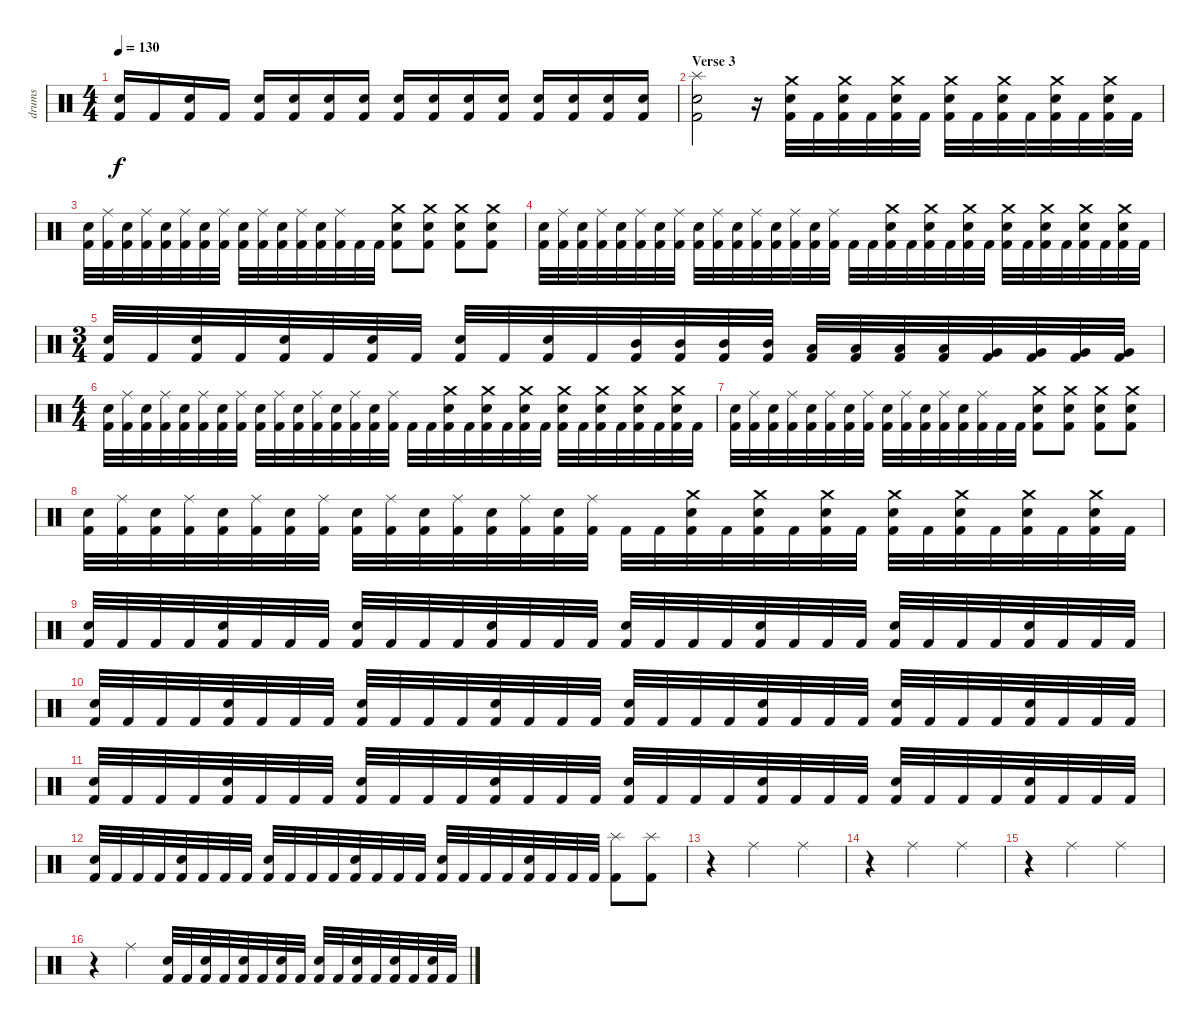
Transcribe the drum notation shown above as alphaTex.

\track ("drums" "drums") {instrument percussion}
\staff {score}
\articulation defaults
\ts (4 4)
\tempo 130
\clef neutral
\ks c
("Electric Snare (hit)" "Kick (hit) 2").16{dy f} "Kick (hit) 2".16 ("Electric Snare (hit)" "Kick (hit) 2").16 "Kick (hit) 2".16 ("Electric Snare (hit)" "Kick (hit) 2").16 ("Electric Snare (hit)" "Kick (hit) 2").16 ("Electric Snare (hit)" "Kick (hit) 2").16 ("Electric Snare (hit)" "Kick (hit) 2").16 ("Electric Snare (hit)" "Kick (hit) 2").16 ("Electric Snare (hit)" "Kick (hit) 2").16 ("Electric Snare (hit)" "Kick (hit) 2").16 ("Electric Snare (hit)" "Kick (hit) 2").16 ("Electric Snare (hit)" "Kick (hit) 2").16 ("Electric Snare (hit)" "Kick (hit) 2").16 ("Electric Snare (hit)" "Kick (hit) 2").16 ("Electric Snare (hit)" "Kick (hit) 2").16 |
\section ("" "Verse 3")
("Splash (hit)" "Electric Snare (hit)" "Kick (hit) 2").2 r.16 ("Crash medium (hit)" "Electric Snare (hit)" "Kick (hit) 2").32 "Kick (hit) 2".32 ("Crash medium (hit)" "Electric Snare (hit)" "Kick (hit) 2").32 "Kick (hit) 2".32 ("Crash medium (hit)" "Electric Snare (hit)" "Kick (hit) 2").32 "Kick (hit) 2".32 ("Crash medium (hit)" "Electric Snare (hit)" "Kick (hit) 2").32 "Kick (hit) 2".32 ("Crash medium (hit)" "Electric Snare (hit)" "Kick (hit) 2").32 "Kick (hit) 2".32 ("Crash medium (hit)" "Electric Snare (hit)" "Kick (hit) 2").32 "Kick (hit) 2".32 ("Crash medium (hit)" "Electric Snare (hit)" "Kick (hit) 2").32 "Kick (hit) 2".32 |
("Electric Snare (hit)" "Kick (hit) 2").32 ("Ride (middle)" "Kick (hit) 2").32 ("Electric Snare (hit)" "Kick (hit) 2").32 ("Ride (middle)" "Kick (hit) 2").32 ("Electric Snare (hit)" "Kick (hit) 2").32 ("Ride (middle)" "Kick (hit) 2").32 ("Electric Snare (hit)" "Kick (hit) 2").32 ("Ride (middle)" "Kick (hit) 2").32 ("Electric Snare (hit)" "Kick (hit) 2").32 ("Ride (middle)" "Kick (hit) 2").32 ("Electric Snare (hit)" "Kick (hit) 2").32 ("Ride (middle)" "Kick (hit) 2").32 ("Electric Snare (hit)" "Kick (hit) 2").32 ("Ride (middle)" "Kick (hit) 2").32 "Kick (hit) 2".32 "Kick (hit) 2".32 ("Crash medium (hit)" "Electric Snare (hit)" "Kick (hit) 2").8 ("Crash medium (hit)" "Electric Snare (hit)" "Kick (hit) 2").8 ("Crash medium (hit)" "Electric Snare (hit)" "Kick (hit) 2").8 ("Crash medium (hit)" "Electric Snare (hit)" "Kick (hit) 2").8 |
("Electric Snare (hit)" "Kick (hit) 2").32 ("Ride (middle)" "Kick (hit) 2").32 ("Electric Snare (hit)" "Kick (hit) 2").32 ("Ride (middle)" "Kick (hit) 2").32 ("Electric Snare (hit)" "Kick (hit) 2").32 ("Ride (middle)" "Kick (hit) 2").32 ("Electric Snare (hit)" "Kick (hit) 2").32 ("Ride (middle)" "Kick (hit) 2").32 ("Electric Snare (hit)" "Kick (hit) 2").32 ("Ride (middle)" "Kick (hit) 2").32 ("Electric Snare (hit)" "Kick (hit) 2").32 ("Ride (middle)" "Kick (hit) 2").32 ("Electric Snare (hit)" "Kick (hit) 2").32 ("Ride (middle)" "Kick (hit) 2").32 ("Electric Snare (hit)" "Kick (hit) 2").32 ("Ride (middle)" "Kick (hit) 2").32 "Kick (hit) 2".32 "Kick (hit) 2".32 ("Crash medium (hit)" "Electric Snare (hit)" "Kick (hit) 2").32 "Kick (hit) 2".32 ("Crash medium (hit)" "Electric Snare (hit)" "Kick (hit) 2").32 "Kick (hit) 2".32 ("Crash medium (hit)" "Electric Snare (hit)" "Kick (hit) 2").32 "Kick (hit) 2".32 ("Crash medium (hit)" "Electric Snare (hit)" "Kick (hit) 2").32 "Kick (hit) 2".32 ("Crash medium (hit)" "Electric Snare (hit)" "Kick (hit) 2").32 "Kick (hit) 2".32 ("Crash medium (hit)" "Electric Snare (hit)" "Kick (hit) 2").32 "Kick (hit) 2".32 ("Crash medium (hit)" "Electric Snare (hit)" "Kick (hit) 2").32 "Kick (hit) 2".32 |
\ts (3 4)
("Electric Snare (hit)" "Kick (hit) 2").32 "Kick (hit) 2".32 ("Electric Snare (hit)" "Kick (hit) 2").32 "Kick (hit) 2".32 ("Electric Snare (hit)" "Kick (hit) 2").32 "Kick (hit) 2".32 ("Electric Snare (hit)" "Kick (hit) 2").32 "Kick (hit) 2".32 ("Electric Snare (hit)" "Kick (hit) 2").32 "Kick (hit) 2".32 ("Electric Snare (hit)" "Kick (hit) 2").32 "Kick (hit) 2".32 ("Mid Tom (hit)" "Kick (hit) 2").32 ("Mid Tom (hit)" "Kick (hit) 2").32 ("Mid Tom (hit)" "Kick (hit) 2").32 ("Mid Tom (hit)" "Kick (hit) 2").32 ("Low Tom (hit)" "Kick (hit) 2").32 ("Low Tom (hit)" "Kick (hit) 2").32 ("Low Tom (hit)" "Kick (hit) 2").32 ("Low Tom (hit)" "Kick (hit) 2").32 ("Very Low Tom (hit)" "Kick (hit) 2").32 ("Very Low Tom (hit)" "Kick (hit) 2").32 ("Very Low Tom (hit)" "Kick (hit) 2").32 ("Very Low Tom (hit)" "Kick (hit) 2").32 |
\ts (4 4)
("Electric Snare (hit)" "Kick (hit) 2").32 ("Ride (middle)" "Kick (hit) 2").32 ("Electric Snare (hit)" "Kick (hit) 2").32 ("Ride (middle)" "Kick (hit) 2").32 ("Electric Snare (hit)" "Kick (hit) 2").32 ("Ride (middle)" "Kick (hit) 2").32 ("Electric Snare (hit)" "Kick (hit) 2").32 ("Ride (middle)" "Kick (hit) 2").32 ("Electric Snare (hit)" "Kick (hit) 2").32 ("Ride (middle)" "Kick (hit) 2").32 ("Electric Snare (hit)" "Kick (hit) 2").32 ("Ride (middle)" "Kick (hit) 2").32 ("Electric Snare (hit)" "Kick (hit) 2").32 ("Ride (middle)" "Kick (hit) 2").32 ("Electric Snare (hit)" "Kick (hit) 2").32 ("Ride (middle)" "Kick (hit) 2").32 "Kick (hit) 2".32 "Kick (hit) 2".32 ("Crash medium (hit)" "Electric Snare (hit)" "Kick (hit) 2").32 "Kick (hit) 2".32 ("Crash medium (hit)" "Electric Snare (hit)" "Kick (hit) 2").32 "Kick (hit) 2".32 ("Crash medium (hit)" "Electric Snare (hit)" "Kick (hit) 2").32 "Kick (hit) 2".32 ("Crash medium (hit)" "Electric Snare (hit)" "Kick (hit) 2").32 "Kick (hit) 2".32 ("Crash medium (hit)" "Electric Snare (hit)" "Kick (hit) 2").32 "Kick (hit) 2".32 ("Crash medium (hit)" "Electric Snare (hit)" "Kick (hit) 2").32 "Kick (hit) 2".32 ("Crash medium (hit)" "Electric Snare (hit)" "Kick (hit) 2").32 "Kick (hit) 2".32 |
("Electric Snare (hit)" "Kick (hit) 2").32 ("Ride (middle)" "Kick (hit) 2").32 ("Electric Snare (hit)" "Kick (hit) 2").32 ("Ride (middle)" "Kick (hit) 2").32 ("Electric Snare (hit)" "Kick (hit) 2").32 ("Ride (middle)" "Kick (hit) 2").32 ("Electric Snare (hit)" "Kick (hit) 2").32 ("Ride (middle)" "Kick (hit) 2").32 ("Electric Snare (hit)" "Kick (hit) 2").32 ("Ride (middle)" "Kick (hit) 2").32 ("Electric Snare (hit)" "Kick (hit) 2").32 ("Ride (middle)" "Kick (hit) 2").32 ("Electric Snare (hit)" "Kick (hit) 2").32 ("Ride (middle)" "Kick (hit) 2").32 "Kick (hit) 2".32 "Kick (hit) 2".32 ("Crash medium (hit)" "Electric Snare (hit)" "Kick (hit) 2").8 ("Crash medium (hit)" "Electric Snare (hit)" "Kick (hit) 2").8 ("Crash medium (hit)" "Electric Snare (hit)" "Kick (hit) 2").8 ("Crash medium (hit)" "Electric Snare (hit)" "Kick (hit) 2").8 |
("Electric Snare (hit)" "Kick (hit) 2").32 ("Ride (middle)" "Kick (hit) 2").32 ("Electric Snare (hit)" "Kick (hit) 2").32 ("Ride (middle)" "Kick (hit) 2").32 ("Electric Snare (hit)" "Kick (hit) 2").32 ("Ride (middle)" "Kick (hit) 2").32 ("Electric Snare (hit)" "Kick (hit) 2").32 ("Ride (middle)" "Kick (hit) 2").32 ("Electric Snare (hit)" "Kick (hit) 2").32 ("Ride (middle)" "Kick (hit) 2").32 ("Electric Snare (hit)" "Kick (hit) 2").32 ("Ride (middle)" "Kick (hit) 2").32 ("Electric Snare (hit)" "Kick (hit) 2").32 ("Ride (middle)" "Kick (hit) 2").32 ("Electric Snare (hit)" "Kick (hit) 2").32 ("Ride (middle)" "Kick (hit) 2").32 "Kick (hit) 2".32 "Kick (hit) 2".32 ("Crash medium (hit)" "Electric Snare (hit)" "Kick (hit) 2").32 "Kick (hit) 2".32 ("Crash medium (hit)" "Electric Snare (hit)" "Kick (hit) 2").32 "Kick (hit) 2".32 ("Crash medium (hit)" "Electric Snare (hit)" "Kick (hit) 2").32 "Kick (hit) 2".32 ("Crash medium (hit)" "Electric Snare (hit)" "Kick (hit) 2").32 "Kick (hit) 2".32 ("Crash medium (hit)" "Electric Snare (hit)" "Kick (hit) 2").32 "Kick (hit) 2".32 ("Crash medium (hit)" "Electric Snare (hit)" "Kick (hit) 2").32 "Kick (hit) 2".32 ("Crash medium (hit)" "Electric Snare (hit)" "Kick (hit) 2").32 "Kick (hit) 2".32 |
("Electric Snare (hit)" "Kick (hit) 2").32 "Kick (hit) 2".32 "Kick (hit) 2".32 "Kick (hit) 2".32 ("Electric Snare (hit)" "Kick (hit) 2").32 "Kick (hit) 2".32 "Kick (hit) 2".32 "Kick (hit) 2".32 ("Electric Snare (hit)" "Kick (hit) 2").32 "Kick (hit) 2".32 "Kick (hit) 2".32 "Kick (hit) 2".32 ("Electric Snare (hit)" "Kick (hit) 2").32 "Kick (hit) 2".32 "Kick (hit) 2".32 "Kick (hit) 2".32 ("Electric Snare (hit)" "Kick (hit) 2").32 "Kick (hit) 2".32 "Kick (hit) 2".32 "Kick (hit) 2".32 ("Electric Snare (hit)" "Kick (hit) 2").32 "Kick (hit) 2".32 "Kick (hit) 2".32 "Kick (hit) 2".32 ("Electric Snare (hit)" "Kick (hit) 2").32 "Kick (hit) 2".32 "Kick (hit) 2".32 "Kick (hit) 2".32 ("Electric Snare (hit)" "Kick (hit) 2").32 "Kick (hit) 2".32 "Kick (hit) 2".32 "Kick (hit) 2".32 |
("Electric Snare (hit)" "Kick (hit) 2").32 "Kick (hit) 2".32 "Kick (hit) 2".32 "Kick (hit) 2".32 ("Electric Snare (hit)" "Kick (hit) 2").32 "Kick (hit) 2".32 "Kick (hit) 2".32 "Kick (hit) 2".32 ("Electric Snare (hit)" "Kick (hit) 2").32 "Kick (hit) 2".32 "Kick (hit) 2".32 "Kick (hit) 2".32 ("Electric Snare (hit)" "Kick (hit) 2").32 "Kick (hit) 2".32 "Kick (hit) 2".32 "Kick (hit) 2".32 ("Electric Snare (hit)" "Kick (hit) 2").32 "Kick (hit) 2".32 "Kick (hit) 2".32 "Kick (hit) 2".32 ("Electric Snare (hit)" "Kick (hit) 2").32 "Kick (hit) 2".32 "Kick (hit) 2".32 "Kick (hit) 2".32 ("Electric Snare (hit)" "Kick (hit) 2").32 "Kick (hit) 2".32 "Kick (hit) 2".32 "Kick (hit) 2".32 ("Electric Snare (hit)" "Kick (hit) 2").32 "Kick (hit) 2".32 "Kick (hit) 2".32 "Kick (hit) 2".32 |
("Electric Snare (hit)" "Kick (hit) 2").32 "Kick (hit) 2".32 "Kick (hit) 2".32 "Kick (hit) 2".32 ("Electric Snare (hit)" "Kick (hit) 2").32 "Kick (hit) 2".32 "Kick (hit) 2".32 "Kick (hit) 2".32 ("Electric Snare (hit)" "Kick (hit) 2").32 "Kick (hit) 2".32 "Kick (hit) 2".32 "Kick (hit) 2".32 ("Electric Snare (hit)" "Kick (hit) 2").32 "Kick (hit) 2".32 "Kick (hit) 2".32 "Kick (hit) 2".32 ("Electric Snare (hit)" "Kick (hit) 2").32 "Kick (hit) 2".32 "Kick (hit) 2".32 "Kick (hit) 2".32 ("Electric Snare (hit)" "Kick (hit) 2").32 "Kick (hit) 2".32 "Kick (hit) 2".32 "Kick (hit) 2".32 ("Electric Snare (hit)" "Kick (hit) 2").32 "Kick (hit) 2".32 "Kick (hit) 2".32 "Kick (hit) 2".32 ("Electric Snare (hit)" "Kick (hit) 2").32 "Kick (hit) 2".32 "Kick (hit) 2".32 "Kick (hit) 2".32 |
("Electric Snare (hit)" "Kick (hit) 2").32 "Kick (hit) 2".32 "Kick (hit) 2".32 "Kick (hit) 2".32 ("Electric Snare (hit)" "Kick (hit) 2").32 "Kick (hit) 2".32 "Kick (hit) 2".32 "Kick (hit) 2".32 ("Electric Snare (hit)" "Kick (hit) 2").32 "Kick (hit) 2".32 "Kick (hit) 2".32 "Kick (hit) 2".32 ("Electric Snare (hit)" "Kick (hit) 2").32 "Kick (hit) 2".32 "Kick (hit) 2".32 "Kick (hit) 2".32 ("Electric Snare (hit)" "Kick (hit) 2").32 "Kick (hit) 2".32 "Kick (hit) 2".32 "Kick (hit) 2".32 ("Electric Snare (hit)" "Kick (hit) 2").32 "Kick (hit) 2".32 "Kick (hit) 2".32 "Kick (hit) 2".32 ("Splash (hit)" "Kick (hit) 2").8 ("Splash (hit)" "Kick (hit) 2").8 |
r.4 "Ride (middle)".2 "Ride (middle)".4 |
r.4 "Ride (middle)".2 "Ride (middle)".4 |
r.4 "Ride (middle)".2 "Ride (middle)".4 |
r.4 "Ride (middle)".4 ("Electric Snare (hit)" "Kick (hit) 2").32 "Kick (hit) 2".32 ("Electric Snare (hit)" "Kick (hit) 2").32 "Kick (hit) 2".32 ("Electric Snare (hit)" "Kick (hit) 2").32 "Kick (hit) 2".32 ("Electric Snare (hit)" "Kick (hit) 2").32 "Kick (hit) 2".32 ("Electric Snare (hit)" "Kick (hit) 2").32 "Kick (hit) 2".32 ("Electric Snare (hit)" "Kick (hit) 2").32 "Kick (hit) 2".32 ("Electric Snare (hit)" "Kick (hit) 2").32 "Kick (hit) 2".32 ("Electric Snare (hit)" "Kick (hit) 2").32 "Kick (hit) 2".32
